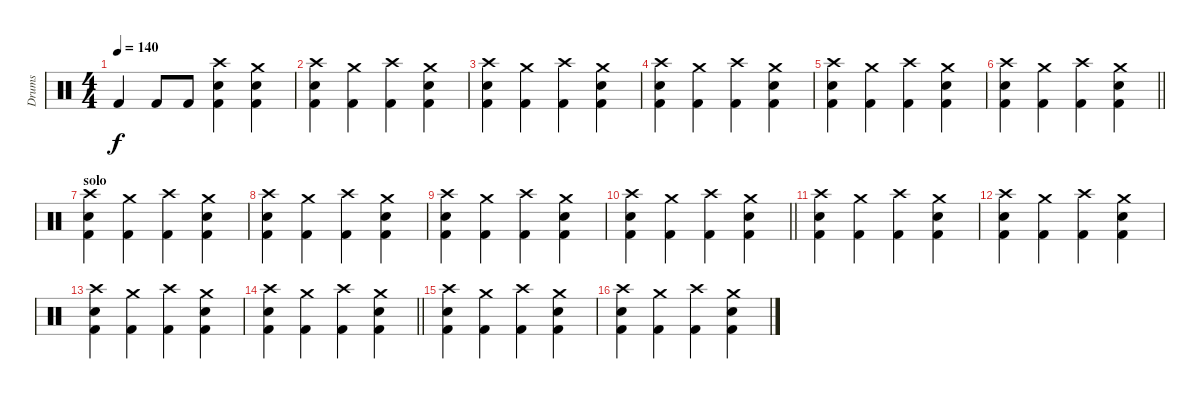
\track ("Drums" "Drums") {instrument percussion}
\staff {score}
\articulation defaults
\ts (4 4)
\tempo 140
\clef neutral
\ks c "Kick (hit) 2".4{dy f} "Kick (hit) 2".8 "Kick (hit) 2".8
("Electric Snare (hit)" "Kick (hit) 2" "Crash high (hit)").4 ("Electric Snare (hit)" "Kick (hit) 2" "Crash medium (hit)").4 |
("Electric Snare (hit)" "Crash high (hit)" "Kick (hit) 2").4 ("Kick (hit) 2" "Crash medium (hit)").4 ("Kick (hit) 2" "Crash high (hit)").4 ("Electric Snare (hit)" "Kick (hit) 2" "Crash medium (hit)").4 |
("Electric Snare (hit)" "Crash high (hit)" "Kick (hit) 2").4 ("Kick (hit) 2" "Crash medium (hit)").4 ("Kick (hit) 2" "Crash high (hit)").4 ("Electric Snare (hit)" "Kick (hit) 2" "Crash medium (hit)").4 |
("Electric Snare (hit)" "Crash high (hit)" "Kick (hit) 2").4 ("Kick (hit) 2" "Crash medium (hit)").4 ("Kick (hit) 2" "Crash high (hit)").4 ("Electric Snare (hit)" "Kick (hit) 2" "Crash medium (hit)").4 |
("Electric Snare (hit)" "Crash high (hit)" "Kick (hit) 2").4 ("Kick (hit) 2" "Crash medium (hit)").4 ("Kick (hit) 2" "Crash high (hit)").4 ("Electric Snare (hit)" "Kick (hit) 2" "Crash medium (hit)").4 |
\barLineRight lightlight
("Electric Snare (hit)" "Crash high (hit)" "Kick (hit) 2").4 ("Kick (hit) 2" "Crash medium (hit)").4 ("Kick (hit) 2" "Crash high (hit)").4 ("Electric Snare (hit)" "Kick (hit) 2" "Crash medium (hit)").4 |
\section ("" "solo")
("Electric Snare (hit)" "Crash high (hit)" "Kick (hit) 2").4 ("Kick (hit) 2" "Crash medium (hit)").4 ("Kick (hit) 2" "Crash high (hit)").4 ("Electric Snare (hit)" "Kick (hit) 2" "Crash medium (hit)").4 |
("Electric Snare (hit)" "Crash high (hit)" "Kick (hit) 2").4 ("Kick (hit) 2" "Crash medium (hit)").4 ("Kick (hit) 2" "Crash high (hit)").4 ("Electric Snare (hit)" "Kick (hit) 2" "Crash medium (hit)").4 |
("Electric Snare (hit)" "Crash high (hit)" "Kick (hit) 2").4 ("Kick (hit) 2" "Crash medium (hit)").4 ("Kick (hit) 2" "Crash high (hit)").4 ("Electric Snare (hit)" "Kick (hit) 2" "Crash medium (hit)").4 |
\barLineRight lightlight
("Electric Snare (hit)" "Crash high (hit)" "Kick (hit) 2").4 ("Kick (hit) 2" "Crash medium (hit)").4 ("Kick (hit) 2" "Crash high (hit)").4 ("Electric Snare (hit)" "Kick (hit) 2" "Crash medium (hit)").4 |
("Electric Snare (hit)" "Crash high (hit)" "Kick (hit) 2").4 ("Kick (hit) 2" "Crash medium (hit)").4 ("Kick (hit) 2" "Crash high (hit)").4 ("Electric Snare (hit)" "Kick (hit) 2" "Crash medium (hit)").4 |
("Electric Snare (hit)" "Crash high (hit)" "Kick (hit) 2").4 ("Kick (hit) 2" "Crash medium (hit)").4 ("Kick (hit) 2" "Crash high (hit)").4 ("Electric Snare (hit)" "Kick (hit) 2" "Crash medium (hit)").4 |
("Electric Snare (hit)" "Crash high (hit)" "Kick (hit) 2").4 ("Kick (hit) 2" "Crash medium (hit)").4 ("Kick (hit) 2" "Crash high (hit)").4 ("Electric Snare (hit)" "Kick (hit) 2" "Crash medium (hit)").4 |
\barLineRight lightlight
("Electric Snare (hit)" "Crash high (hit)" "Kick (hit) 2").4 ("Kick (hit) 2" "Crash medium (hit)").4 ("Kick (hit) 2" "Crash high (hit)").4 ("Electric Snare (hit)" "Kick (hit) 2" "Crash medium (hit)").4 |
("Electric Snare (hit)" "Crash high (hit)" "Kick (hit) 2").4 ("Kick (hit) 2" "Crash medium (hit)").4 ("Kick (hit) 2" "Crash high (hit)").4 ("Electric Snare (hit)" "Kick (hit) 2" "Crash medium (hit)").4 |
("Electric Snare (hit)" "Crash high (hit)" "Kick (hit) 2").4 ("Kick (hit) 2" "Crash medium (hit)").4 ("Kick (hit) 2" "Crash high (hit)").4 ("Electric Snare (hit)" "Kick (hit) 2" "Crash medium (hit)").4
